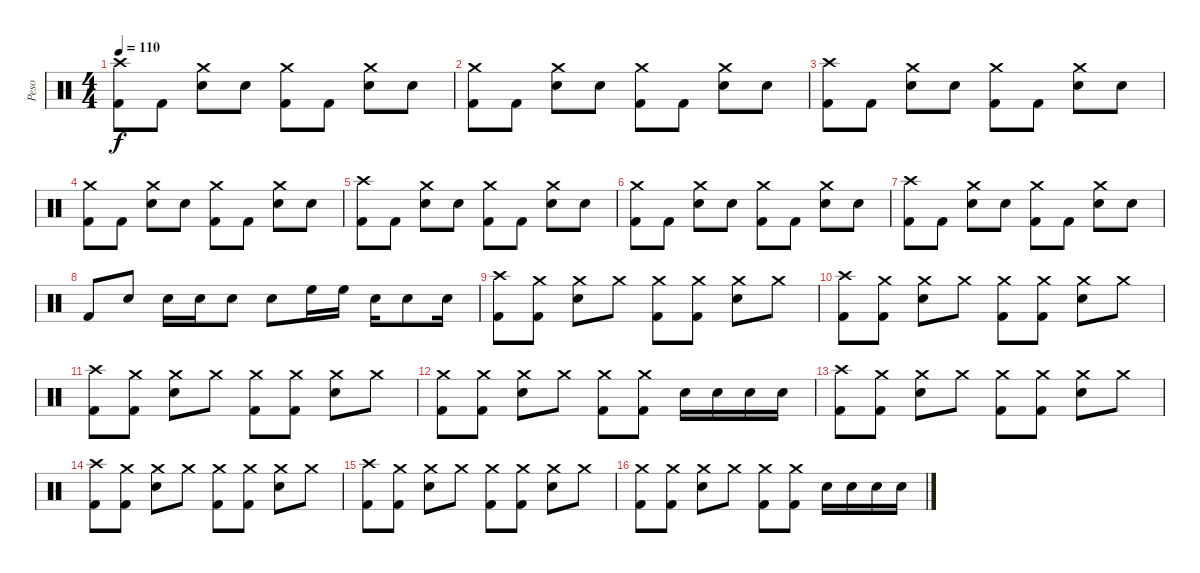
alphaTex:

\track ("Peso" "Peso") {instrument percussion}
\staff {score}
\articulation defaults
\ts (4 4)
\tempo 110
\clef neutral
\ks c
("Crash high (hit)" "Kick (hit) 2").8{dy f} "Kick (hit) 2".8 ("Crash medium (hit)" "Snare (hit) 2").8 "Snare (hit) 2".8 ("Crash medium (hit)" "Kick (hit) 2").8 "Kick (hit) 2".8 ("Crash medium (hit)" "Snare (hit) 2").8 "Snare (hit) 2".8 |
("Crash medium (hit)" "Kick (hit) 2").8 "Kick (hit) 2".8 ("Crash medium (hit)" "Snare (hit) 2").8 "Snare (hit) 2".8 ("Crash medium (hit)" "Kick (hit) 2").8 "Kick (hit) 2".8 ("Crash medium (hit)" "Snare (hit) 2").8 "Snare (hit) 2".8 |
("Crash high (hit)" "Kick (hit) 2").8 "Kick (hit) 2".8 ("Crash medium (hit)" "Snare (hit) 2").8 "Snare (hit) 2".8 ("Crash medium (hit)" "Kick (hit) 2").8 "Kick (hit) 2".8 ("Crash medium (hit)" "Snare (hit) 2").8 "Snare (hit) 2".8 |
("Crash medium (hit)" "Kick (hit) 2").8 "Kick (hit) 2".8 ("Crash medium (hit)" "Snare (hit) 2").8 "Snare (hit) 2".8 ("Crash medium (hit)" "Kick (hit) 2").8 "Kick (hit) 2".8 ("Crash medium (hit)" "Snare (hit) 2").8 "Snare (hit) 2".8 |
("Crash high (hit)" "Kick (hit) 2").8 "Kick (hit) 2".8 ("Crash medium (hit)" "Snare (hit) 2").8 "Snare (hit) 2".8 ("Crash medium (hit)" "Kick (hit) 2").8 "Kick (hit) 2".8 ("Crash medium (hit)" "Snare (hit) 2").8 "Snare (hit) 2".8 |
("Crash medium (hit)" "Kick (hit) 2").8 "Kick (hit) 2".8 ("Crash medium (hit)" "Snare (hit) 2").8 "Snare (hit) 2".8 ("Crash medium (hit)" "Kick (hit) 2").8 "Kick (hit) 2".8 ("Crash medium (hit)" "Snare (hit) 2").8 "Snare (hit) 2".8 |
("Crash high (hit)" "Kick (hit) 2").8 "Kick (hit) 2".8 ("Crash medium (hit)" "Snare (hit) 2").8 "Snare (hit) 2".8 ("Crash medium (hit)" "Kick (hit) 2").8 "Kick (hit) 2".8 ("Crash medium (hit)" "Snare (hit) 2").8 "Snare (hit) 2".8 |
"Kick (hit) 2".8 "Snare (hit) 2".8 "Snare (hit) 2".16 "Snare (hit) 2".16 "Snare (hit) 2".8 "Snare (hit) 2".8 "High Floor Tom (hit)".16 "High Floor Tom (hit)".16 "Snare (hit) 2".16 "Snare (hit) 2".8 "Snare (hit) 2".16 |
("Crash high (hit)" "Kick (hit) 2").8 ("Crash medium (hit)"{x} "Kick (hit) 2").8 ("Crash medium (hit)" "Snare (hit) 2").8 "Crash medium (hit)"{x}.8 ("Crash medium (hit)" "Kick (hit) 2").8 ("Crash medium (hit)"{x} "Kick (hit) 2").8 ("Crash medium (hit)" "Snare (hit) 2").8 "Crash medium (hit)"{x}.8 |
("Crash high (hit)" "Kick (hit) 2").8 ("Crash medium (hit)"{x} "Kick (hit) 2").8 ("Crash medium (hit)" "Snare (hit) 2").8 "Crash medium (hit)"{x}.8 ("Crash medium (hit)" "Kick (hit) 2").8 ("Crash medium (hit)"{x} "Kick (hit) 2").8 ("Crash medium (hit)" "Snare (hit) 2").8 "Crash medium (hit)"{x}.8 |
("Crash high (hit)" "Kick (hit) 2").8 ("Crash medium (hit)"{x} "Kick (hit) 2").8 ("Crash medium (hit)" "Snare (hit) 2").8 "Crash medium (hit)"{x}.8 ("Crash medium (hit)" "Kick (hit) 2").8 ("Crash medium (hit)"{x} "Kick (hit) 2").8 ("Crash medium (hit)" "Snare (hit) 2").8 "Crash medium (hit)"{x}.8 |
("Crash medium (hit)" "Kick (hit) 2").8 ("Crash medium (hit)"{x} "Kick (hit) 2").8 ("Crash medium (hit)" "Snare (hit) 2").8 "Crash medium (hit)"{x}.8 ("Crash medium (hit)" "Kick (hit) 2").8 ("Crash medium (hit)"{x} "Kick (hit) 2").8 "Snare (hit) 2".16 "Snare (hit) 2".16 "Snare (hit) 2".16 "Snare (hit) 2".16 |
("Crash high (hit)" "Kick (hit) 2").8 ("Crash medium (hit)"{x} "Kick (hit) 2").8 ("Crash medium (hit)" "Snare (hit) 2").8 "Crash medium (hit)"{x}.8 ("Crash medium (hit)" "Kick (hit) 2").8 ("Crash medium (hit)"{x} "Kick (hit) 2").8 ("Crash medium (hit)" "Snare (hit) 2").8 "Crash medium (hit)"{x}.8 |
("Crash high (hit)" "Kick (hit) 2").8 ("Crash medium (hit)"{x} "Kick (hit) 2").8 ("Crash medium (hit)" "Snare (hit) 2").8 "Crash medium (hit)"{x}.8 ("Crash medium (hit)" "Kick (hit) 2").8 ("Crash medium (hit)"{x} "Kick (hit) 2").8 ("Crash medium (hit)" "Snare (hit) 2").8 "Crash medium (hit)"{x}.8 |
("Crash high (hit)" "Kick (hit) 2").8 ("Crash medium (hit)"{x} "Kick (hit) 2").8 ("Crash medium (hit)" "Snare (hit) 2").8 "Crash medium (hit)"{x}.8 ("Crash medium (hit)" "Kick (hit) 2").8 ("Crash medium (hit)"{x} "Kick (hit) 2").8 ("Crash medium (hit)" "Snare (hit) 2").8 "Crash medium (hit)"{x}.8 |
("Crash medium (hit)" "Kick (hit) 2").8 ("Crash medium (hit)"{x} "Kick (hit) 2").8 ("Crash medium (hit)" "Snare (hit) 2").8 "Crash medium (hit)"{x}.8 ("Crash medium (hit)" "Kick (hit) 2").8 ("Crash medium (hit)"{x} "Kick (hit) 2").8 "Snare (hit) 2".16 "Snare (hit) 2".16 "Snare (hit) 2".16 "Snare (hit) 2".16
